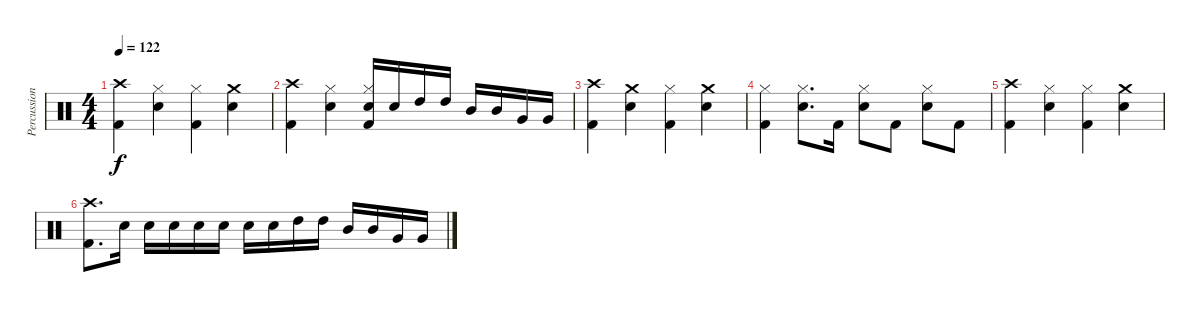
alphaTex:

\track ("Percussion" "Percussion") {instrument percussion}
\staff {score}
\articulation defaults
\ts (4 4)
\tempo 122
\clef neutral
\ks c
("Crash high (hit)" "Kick (hit) 2").4{dy f} ("Hi-Hat (closed)" "Electric Snare (hit)").4 ("Hi-Hat (closed)" "Kick (hit) 2").4 ("Crash medium (hit)" "Electric Snare (hit)").4 |
("Crash high (hit)" "Kick (hit) 2").4 ("Hi-Hat (closed)" "Electric Snare (hit)").4 ("Hi-Hat (closed)" "Electric Snare (hit)" "Kick (hit) 2").16 "Electric Snare (hit)".16 "High Tom (hit)".16 "High Tom (hit)".16 "Mid Tom (hit)".16 "Mid Tom (hit)".16 "Very Low Tom (hit)".16 "Very Low Tom (hit)".16 |
("Crash high (hit)" "Kick (hit) 2").4 ("Crash medium (hit)" "Electric Snare (hit)").4 ("Hi-Hat (closed)" "Kick (hit) 2").4 ("Crash medium (hit)" "Electric Snare (hit)").4 |
("Hi-Hat (closed)" "Kick (hit) 2").4 ("Hi-Hat (closed)" "Electric Snare (hit)").8{d} "Kick (hit) 2".16 ("Hi-Hat (closed)" "Electric Snare (hit)").8 "Kick (hit) 2".8 ("Hi-Hat (closed)" "Electric Snare (hit)").8 "Kick (hit) 2".8 |
("Crash high (hit)" "Kick (hit) 2").4 ("Hi-Hat (closed)" "Electric Snare (hit)").4 ("Hi-Hat (closed)" "Kick (hit) 2").4 ("Crash medium (hit)" "Electric Snare (hit)").4 |
("Crash high (hit)" "Kick (hit) 2").8{d} "Electric Snare (hit)".16 "Electric Snare (hit)".16 "Electric Snare (hit)".16 "Electric Snare (hit)".16 "Electric Snare (hit)".16 "Electric Snare (hit)".16 "Electric Snare (hit)".16 "High Tom (hit)".16 "High Tom (hit)".16 "Mid Tom (hit)".16 "Mid Tom (hit)".16 "Very Low Tom (hit)".16 "Very Low Tom (hit)".16
